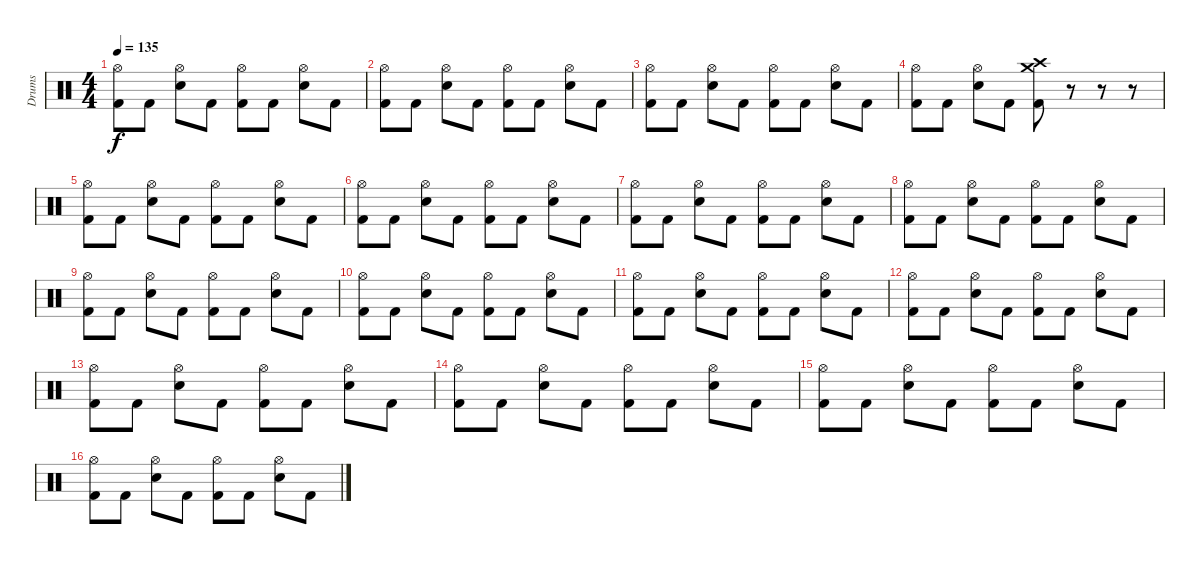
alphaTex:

\track ("Drums" "Drums") {instrument percussion}
\staff {score}
\articulation defaults
\ts (4 4)
\tempo 135
\clef neutral
\ks c
("Hi-Hat (open)" "Kick (hit) 2").8{dy f} "Kick (hit) 2".8 ("Hi-Hat (open)" "Electric Snare (hit)").8 "Kick (hit) 2".8 ("Hi-Hat (open)" "Kick (hit) 2").8 "Kick (hit) 2".8 ("Hi-Hat (open)" "Electric Snare (hit)").8 "Kick (hit) 2".8 |
("Hi-Hat (open)" "Kick (hit) 2").8 "Kick (hit) 2".8 ("Hi-Hat (open)" "Electric Snare (hit)").8 "Kick (hit) 2".8 ("Hi-Hat (open)" "Kick (hit) 2").8 "Kick (hit) 2".8 ("Hi-Hat (open)" "Electric Snare (hit)").8 "Kick (hit) 2".8 |
("Hi-Hat (open)" "Kick (hit) 2").8 "Kick (hit) 2".8 ("Hi-Hat (open)" "Electric Snare (hit)").8 "Kick (hit) 2".8 ("Hi-Hat (open)" "Kick (hit) 2").8 "Kick (hit) 2".8 ("Hi-Hat (open)" "Electric Snare (hit)").8 "Kick (hit) 2".8 |
("Hi-Hat (open)" "Kick (hit) 2").8 "Kick (hit) 2".8 ("Hi-Hat (open)" "Electric Snare (hit)").8 "Kick (hit) 2".8 ("Crash medium (hit)" "Crash high (hit)" "Kick (hit) 2").8 r.8 r.8 r.8 |
("Hi-Hat (open)" "Kick (hit) 2").8 "Kick (hit) 2".8 ("Hi-Hat (open)" "Electric Snare (hit)").8 "Kick (hit) 2".8 ("Hi-Hat (open)" "Kick (hit) 2").8 "Kick (hit) 2".8 ("Hi-Hat (open)" "Electric Snare (hit)").8 "Kick (hit) 2".8 |
("Hi-Hat (open)" "Kick (hit) 2").8 "Kick (hit) 2".8 ("Hi-Hat (open)" "Electric Snare (hit)").8 "Kick (hit) 2".8 ("Hi-Hat (open)" "Kick (hit) 2").8 "Kick (hit) 2".8 ("Hi-Hat (open)" "Electric Snare (hit)").8 "Kick (hit) 2".8 |
("Hi-Hat (open)" "Kick (hit) 2").8 "Kick (hit) 2".8 ("Hi-Hat (open)" "Electric Snare (hit)").8 "Kick (hit) 2".8 ("Hi-Hat (open)" "Kick (hit) 2").8 "Kick (hit) 2".8 ("Hi-Hat (open)" "Electric Snare (hit)").8 "Kick (hit) 2".8 |
("Hi-Hat (open)" "Kick (hit) 2").8 "Kick (hit) 2".8 ("Hi-Hat (open)" "Electric Snare (hit)").8 "Kick (hit) 2".8 ("Hi-Hat (open)" "Kick (hit) 2").8 "Kick (hit) 2".8 ("Hi-Hat (open)" "Electric Snare (hit)").8 "Kick (hit) 2".8 |
("Hi-Hat (open)" "Kick (hit) 2").8 "Kick (hit) 2".8 ("Hi-Hat (open)" "Electric Snare (hit)").8 "Kick (hit) 2".8 ("Hi-Hat (open)" "Kick (hit) 2").8 "Kick (hit) 2".8 ("Hi-Hat (open)" "Electric Snare (hit)").8 "Kick (hit) 2".8 |
("Hi-Hat (open)" "Kick (hit) 2").8 "Kick (hit) 2".8 ("Hi-Hat (open)" "Electric Snare (hit)").8 "Kick (hit) 2".8 ("Hi-Hat (open)" "Kick (hit) 2").8 "Kick (hit) 2".8 ("Hi-Hat (open)" "Electric Snare (hit)").8 "Kick (hit) 2".8 |
("Hi-Hat (open)" "Kick (hit) 2").8 "Kick (hit) 2".8 ("Hi-Hat (open)" "Electric Snare (hit)").8 "Kick (hit) 2".8 ("Hi-Hat (open)" "Kick (hit) 2").8 "Kick (hit) 2".8 ("Hi-Hat (open)" "Electric Snare (hit)").8 "Kick (hit) 2".8 |
("Hi-Hat (open)" "Kick (hit) 2").8 "Kick (hit) 2".8 ("Hi-Hat (open)" "Electric Snare (hit)").8 "Kick (hit) 2".8 ("Hi-Hat (open)" "Kick (hit) 2").8 "Kick (hit) 2".8 ("Hi-Hat (open)" "Electric Snare (hit)").8 "Kick (hit) 2".8 |
("Hi-Hat (open)" "Kick (hit) 2").8 "Kick (hit) 2".8 ("Hi-Hat (open)" "Electric Snare (hit)").8 "Kick (hit) 2".8 ("Hi-Hat (open)" "Kick (hit) 2").8 "Kick (hit) 2".8 ("Hi-Hat (open)" "Electric Snare (hit)").8 "Kick (hit) 2".8 |
("Hi-Hat (open)" "Kick (hit) 2").8 "Kick (hit) 2".8 ("Hi-Hat (open)" "Electric Snare (hit)").8 "Kick (hit) 2".8 ("Hi-Hat (open)" "Kick (hit) 2").8 "Kick (hit) 2".8 ("Hi-Hat (open)" "Electric Snare (hit)").8 "Kick (hit) 2".8 |
("Hi-Hat (open)" "Kick (hit) 2").8 "Kick (hit) 2".8 ("Hi-Hat (open)" "Electric Snare (hit)").8 "Kick (hit) 2".8 ("Hi-Hat (open)" "Kick (hit) 2").8 "Kick (hit) 2".8 ("Hi-Hat (open)" "Electric Snare (hit)").8 "Kick (hit) 2".8 |
("Hi-Hat (open)" "Kick (hit) 2").8 "Kick (hit) 2".8 ("Hi-Hat (open)" "Electric Snare (hit)").8 "Kick (hit) 2".8 ("Hi-Hat (open)" "Kick (hit) 2").8 "Kick (hit) 2".8 ("Hi-Hat (open)" "Electric Snare (hit)").8 "Kick (hit) 2".8
